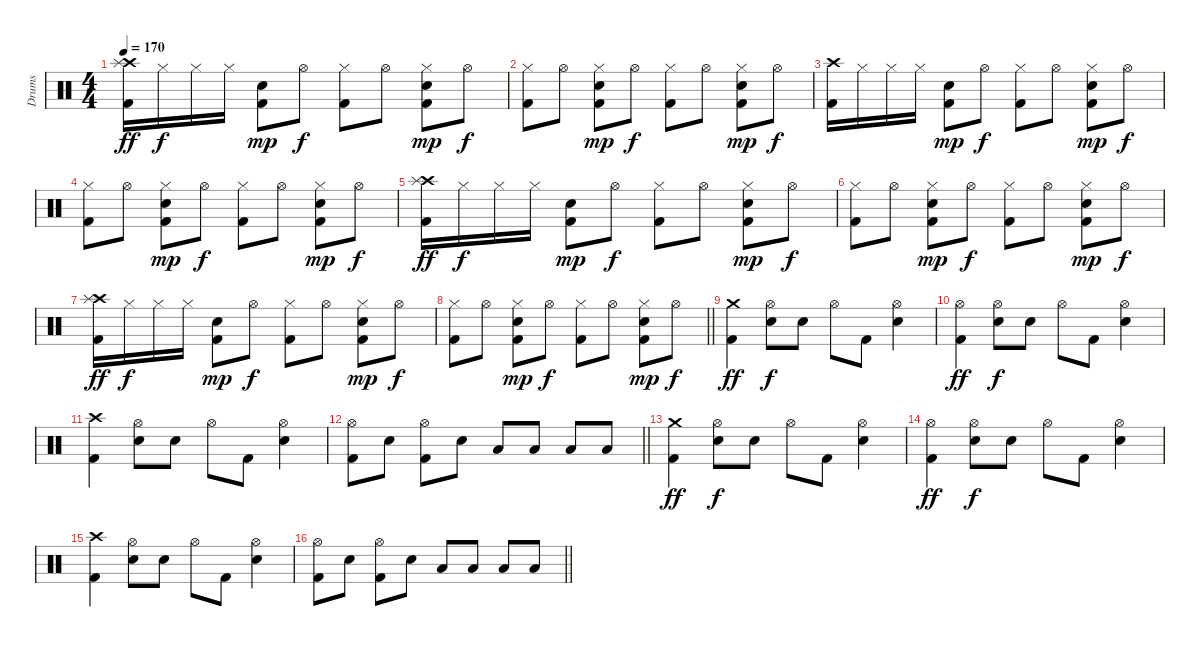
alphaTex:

\track ("Drums" "Drums") {instrument percussion}
\staff {score}
\articulation defaults
\ts (4 4)
\tempo 170
\clef neutral
\ks c
("Crash high (hit)" "Kick (hit) 2" "Splash (hit)").16{dy ff} "Hi-Hat (closed)".16{dy f} "Hi-Hat (closed)".16 "Hi-Hat (closed)".16 ("Electric Snare (hit)" "Kick (hit) 2").8{dy mp} "Hi-Hat (open)".8{dy f} ("Hi-Hat (closed)" "Kick (hit) 2").8 "Hi-Hat (open)".8 ("Hi-Hat (closed)" "Electric Snare (hit)" "Kick (hit) 2").8{dy mp} "Hi-Hat (open)".8{dy f} |
("Hi-Hat (closed)" "Kick (hit) 2").8 "Hi-Hat (open)".8 ("Hi-Hat (closed)" "Electric Snare (hit)" "Kick (hit) 2").8{dy mp} "Hi-Hat (open)".8{dy f} ("Hi-Hat (closed)" "Kick (hit) 2").8 "Hi-Hat (open)".8 ("Hi-Hat (closed)" "Electric Snare (hit)" "Kick (hit) 2").8{dy mp} "Hi-Hat (open)".8{dy f} |
("Crash high (hit)" "Kick (hit) 2").16 "Hi-Hat (closed)".16 "Hi-Hat (closed)".16 "Hi-Hat (closed)".16 ("Electric Snare (hit)" "Kick (hit) 2").8{dy mp} "Hi-Hat (open)".8{dy f} ("Hi-Hat (closed)" "Kick (hit) 2").8 "Hi-Hat (open)".8 ("Hi-Hat (closed)" "Electric Snare (hit)" "Kick (hit) 2").8{dy mp} "Hi-Hat (open)".8{dy f} |
("Hi-Hat (closed)" "Kick (hit) 2").8 "Hi-Hat (open)".8 ("Hi-Hat (closed)" "Electric Snare (hit)" "Kick (hit) 2").8{dy mp} "Hi-Hat (open)".8{dy f} ("Hi-Hat (closed)" "Kick (hit) 2").8 "Hi-Hat (open)".8 ("Hi-Hat (closed)" "Electric Snare (hit)" "Kick (hit) 2").8{dy mp} "Hi-Hat (open)".8{dy f} |
("Crash high (hit)" "Kick (hit) 2" "Splash (hit)").16{dy ff} "Hi-Hat (closed)".16{dy f} "Hi-Hat (closed)".16 "Hi-Hat (closed)".16 ("Electric Snare (hit)" "Kick (hit) 2").8{dy mp} "Hi-Hat (open)".8{dy f} ("Hi-Hat (closed)" "Kick (hit) 2").8 "Hi-Hat (open)".8 ("Hi-Hat (closed)" "Electric Snare (hit)" "Kick (hit) 2").8{dy mp} "Hi-Hat (open)".8{dy f} |
("Hi-Hat (closed)" "Kick (hit) 2").8 "Hi-Hat (open)".8 ("Hi-Hat (closed)" "Electric Snare (hit)" "Kick (hit) 2").8{dy mp} "Hi-Hat (open)".8{dy f} ("Hi-Hat (closed)" "Kick (hit) 2").8 "Hi-Hat (open)".8 ("Hi-Hat (closed)" "Electric Snare (hit)" "Kick (hit) 2").8{dy mp} "Hi-Hat (open)".8{dy f} |
("Crash high (hit)" "Kick (hit) 2" "Splash (hit)").16{dy ff} "Hi-Hat (closed)".16{dy f} "Hi-Hat (closed)".16 "Hi-Hat (closed)".16 ("Electric Snare (hit)" "Kick (hit) 2").8{dy mp} "Hi-Hat (open)".8{dy f} ("Hi-Hat (closed)" "Kick (hit) 2").8 "Hi-Hat (open)".8 ("Hi-Hat (closed)" "Electric Snare (hit)" "Kick (hit) 2").8{dy mp} "Hi-Hat (open)".8{dy f} |
\barLineRight lightlight
("Hi-Hat (closed)" "Kick (hit) 2").8 "Hi-Hat (open)".8 ("Hi-Hat (closed)" "Electric Snare (hit)" "Kick (hit) 2").8{dy mp} "Hi-Hat (open)".8{dy f} ("Hi-Hat (closed)" "Kick (hit) 2").8 "Hi-Hat (open)".8 ("Hi-Hat (closed)" "Electric Snare (hit)" "Kick (hit) 2").8{dy mp} "Hi-Hat (open)".8{dy f} |
("Crash medium (hit)" "Kick (hit) 2").4{dy ff} ("Hi-Hat (open)" "Electric Snare (hit)").8{dy f} "Electric Snare (hit)".8 "Hi-Hat (open)".8 "Kick (hit) 2".8 ("Hi-Hat (open)" "Electric Snare (hit)").4 |
("Hi-Hat (open)" "Kick (hit) 2").4{dy ff} ("Hi-Hat (open)" "Electric Snare (hit)").8{dy f} "Electric Snare (hit)".8 "Hi-Hat (open)".8 "Kick (hit) 2".8 ("Hi-Hat (open)" "Electric Snare (hit)").4 |
("Crash high (hit)" "Kick (hit) 2").4 ("Hi-Hat (open)" "Electric Snare (hit)").8 "Electric Snare (hit)".8 "Hi-Hat (open)".8 "Kick (hit) 2".8 ("Hi-Hat (open)" "Electric Snare (hit)").4 |
\barLineRight lightlight
("Hi-Hat (open)" "Kick (hit) 2").8 "Electric Snare (hit)".8 ("Hi-Hat (open)" "Kick (hit) 2").8 "Electric Snare (hit)".8 "Low Tom (hit)".8 "Low Tom (hit)".8 "Low Floor Tom (hit)".8 "Low Floor Tom (hit)".8 |
("Crash medium (hit)" "Kick (hit) 2").4{dy ff} ("Hi-Hat (open)" "Electric Snare (hit)").8{dy f} "Electric Snare (hit)".8 "Hi-Hat (open)".8 "Kick (hit) 2".8 ("Hi-Hat (open)" "Electric Snare (hit)").4 |
("Hi-Hat (open)" "Kick (hit) 2").4{dy ff} ("Hi-Hat (open)" "Electric Snare (hit)").8{dy f} "Electric Snare (hit)".8 "Hi-Hat (open)".8 "Kick (hit) 2".8 ("Hi-Hat (open)" "Electric Snare (hit)").4 |
("Crash high (hit)" "Kick (hit) 2").4 ("Hi-Hat (open)" "Electric Snare (hit)").8 "Electric Snare (hit)".8 "Hi-Hat (open)".8 "Kick (hit) 2".8 ("Hi-Hat (open)" "Electric Snare (hit)").4 |
\barLineRight lightlight
("Hi-Hat (open)" "Kick (hit) 2").8 "Electric Snare (hit)".8 ("Hi-Hat (open)" "Kick (hit) 2").8 "Electric Snare (hit)".8 "Low Tom (hit)".8 "Low Tom (hit)".8 "Low Floor Tom (hit)".8 "Low Floor Tom (hit)".8
